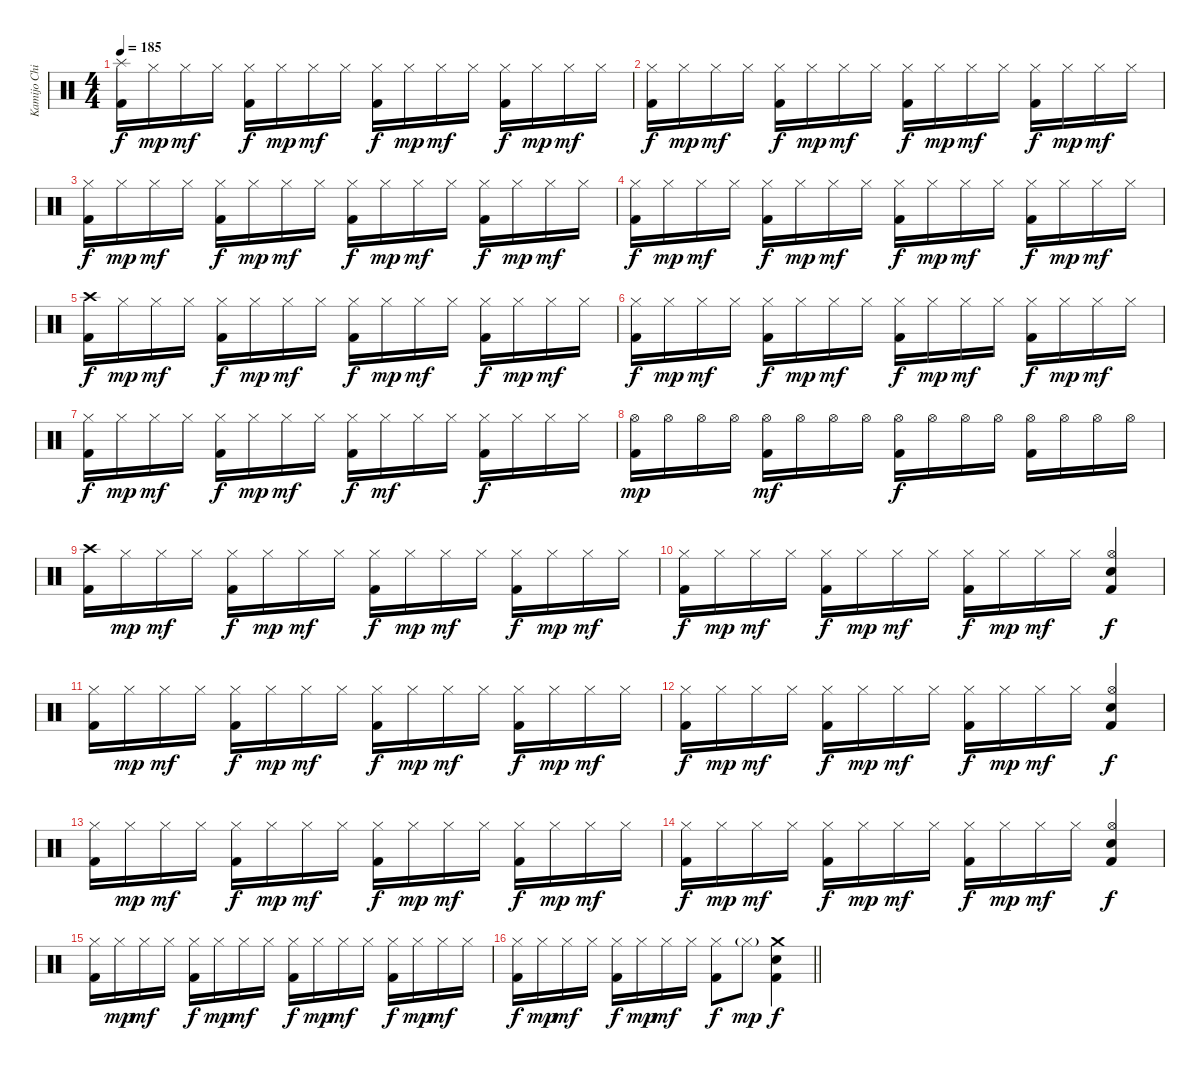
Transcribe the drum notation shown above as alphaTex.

\track ("Kamijo Chihiro" "Kamijo Chi") {instrument percussion}
\staff {score}
\articulation defaults
\ts (4 4)
\tempo 185
\clef neutral
\ks c
("Splash (hit)" "Kick (hit) 2").16{dy f} "Hi-Hat (closed)".16{dy mp} "Hi-Hat (closed)".16{dy mf} "Hi-Hat (closed)".16 ("Hi-Hat (closed)" "Kick (hit) 2").16{dy f} "Hi-Hat (closed)".16{dy mp} "Hi-Hat (closed)".16{dy mf} "Hi-Hat (closed)".16 ("Hi-Hat (closed)" "Kick (hit) 2").16{dy f} "Hi-Hat (closed)".16{dy mp} "Hi-Hat (closed)".16{dy mf} "Hi-Hat (closed)".16 ("Hi-Hat (closed)" "Kick (hit) 2").16{dy f} "Hi-Hat (closed)".16{dy mp} "Hi-Hat (closed)".16{dy mf} "Hi-Hat (closed)".16 |
("Hi-Hat (closed)" "Kick (hit) 2").16{dy f} "Hi-Hat (closed)".16{dy mp} "Hi-Hat (closed)".16{dy mf} "Hi-Hat (closed)".16 ("Hi-Hat (closed)" "Kick (hit) 2").16{dy f} "Hi-Hat (closed)".16{dy mp} "Hi-Hat (closed)".16{dy mf} "Hi-Hat (closed)".16 ("Hi-Hat (closed)" "Kick (hit) 2").16{dy f} "Hi-Hat (closed)".16{dy mp} "Hi-Hat (closed)".16{dy mf} "Hi-Hat (closed)".16 ("Hi-Hat (closed)" "Kick (hit) 2").16{dy f} "Hi-Hat (closed)".16{dy mp} "Hi-Hat (closed)".16{dy mf} "Hi-Hat (closed)".16 |
("Hi-Hat (closed)" "Kick (hit) 2").16{dy f} "Hi-Hat (closed)".16{dy mp} "Hi-Hat (closed)".16{dy mf} "Hi-Hat (closed)".16 ("Hi-Hat (closed)" "Kick (hit) 2").16{dy f} "Hi-Hat (closed)".16{dy mp} "Hi-Hat (closed)".16{dy mf} "Hi-Hat (closed)".16 ("Hi-Hat (closed)" "Kick (hit) 2").16{dy f} "Hi-Hat (closed)".16{dy mp} "Hi-Hat (closed)".16{dy mf} "Hi-Hat (closed)".16 ("Hi-Hat (closed)" "Kick (hit) 2").16{dy f} "Hi-Hat (closed)".16{dy mp} "Hi-Hat (closed)".16{dy mf} "Hi-Hat (closed)".16 |
("Hi-Hat (closed)" "Kick (hit) 2").16{dy f} "Hi-Hat (closed)".16{dy mp} "Hi-Hat (closed)".16{dy mf} "Hi-Hat (closed)".16 ("Hi-Hat (closed)" "Kick (hit) 2").16{dy f} "Hi-Hat (closed)".16{dy mp} "Hi-Hat (closed)".16{dy mf} "Hi-Hat (closed)".16 ("Hi-Hat (closed)" "Kick (hit) 2").16{dy f} "Hi-Hat (closed)".16{dy mp} "Hi-Hat (closed)".16{dy mf} "Hi-Hat (closed)".16 ("Hi-Hat (closed)" "Kick (hit) 2").16{dy f} "Hi-Hat (closed)".16{dy mp} "Hi-Hat (closed)".16{dy mf} "Hi-Hat (closed)".16 |
("Crash high (hit)" "Kick (hit) 2").16{dy f} "Hi-Hat (closed)".16{dy mp} "Hi-Hat (closed)".16{dy mf} "Hi-Hat (closed)".16 ("Hi-Hat (closed)" "Kick (hit) 2").16{dy f} "Hi-Hat (closed)".16{dy mp} "Hi-Hat (closed)".16{dy mf} "Hi-Hat (closed)".16 ("Hi-Hat (closed)" "Kick (hit) 2").16{dy f} "Hi-Hat (closed)".16{dy mp} "Hi-Hat (closed)".16{dy mf} "Hi-Hat (closed)".16 ("Hi-Hat (closed)" "Kick (hit) 2").16{dy f} "Hi-Hat (closed)".16{dy mp} "Hi-Hat (closed)".16{dy mf} "Hi-Hat (closed)".16 |
("Hi-Hat (closed)" "Kick (hit) 2").16{dy f} "Hi-Hat (closed)".16{dy mp} "Hi-Hat (closed)".16{dy mf} "Hi-Hat (closed)".16 ("Hi-Hat (closed)" "Kick (hit) 2").16{dy f} "Hi-Hat (closed)".16{dy mp} "Hi-Hat (closed)".16{dy mf} "Hi-Hat (closed)".16 ("Hi-Hat (closed)" "Kick (hit) 2").16{dy f} "Hi-Hat (closed)".16{dy mp} "Hi-Hat (closed)".16{dy mf} "Hi-Hat (closed)".16 ("Hi-Hat (closed)" "Kick (hit) 2").16{dy f} "Hi-Hat (closed)".16{dy mp} "Hi-Hat (closed)".16{dy mf} "Hi-Hat (closed)".16 |
("Hi-Hat (closed)" "Kick (hit) 2").16{dy f} "Hi-Hat (closed)".16{dy mp} "Hi-Hat (closed)".16{dy mf} "Hi-Hat (closed)".16 ("Hi-Hat (closed)" "Kick (hit) 2").16{dy f} "Hi-Hat (closed)".16{dy mp} "Hi-Hat (closed)".16{dy mf} "Hi-Hat (closed)".16 ("Hi-Hat (closed)" "Kick (hit) 2").16{dy f} "Hi-Hat (closed)".16{dy mf} "Hi-Hat (closed)".16 "Hi-Hat (closed)".16 ("Hi-Hat (closed)" "Kick (hit) 2").16{dy f} "Hi-Hat (closed)".16 "Hi-Hat (closed)".16 "Hi-Hat (closed)".16 |
("Hi-Hat (open)" "Kick (hit) 2").16{dy mp} "Hi-Hat (open)".16 "Hi-Hat (open)".16 "Hi-Hat (open)".16 ("Hi-Hat (open)" "Kick (hit) 2").16{dy mf} "Hi-Hat (open)".16 "Hi-Hat (open)".16 "Hi-Hat (open)".16 ("Hi-Hat (open)" "Kick (hit) 2").16{dy f} "Hi-Hat (open)".16 "Hi-Hat (open)".16 "Hi-Hat (open)".16 ("Hi-Hat (open)" "Kick (hit) 2").16 "Hi-Hat (open)".16 "Hi-Hat (open)".16 "Hi-Hat (open)".16 |
("Crash high (hit)" "Kick (hit) 2").16 "Hi-Hat (closed)".16{dy mp} "Hi-Hat (closed)".16{dy mf} "Hi-Hat (closed)".16 ("Hi-Hat (closed)" "Kick (hit) 2").16{dy f} "Hi-Hat (closed)".16{dy mp} "Hi-Hat (closed)".16{dy mf} "Hi-Hat (closed)".16 ("Hi-Hat (closed)" "Kick (hit) 2").16{dy f} "Hi-Hat (closed)".16{dy mp} "Hi-Hat (closed)".16{dy mf} "Hi-Hat (closed)".16 ("Hi-Hat (closed)" "Kick (hit) 2").16{dy f} "Hi-Hat (closed)".16{dy mp} "Hi-Hat (closed)".16{dy mf} "Hi-Hat (closed)".16 |
("Hi-Hat (closed)" "Kick (hit) 2").16{dy f} "Hi-Hat (closed)".16{dy mp} "Hi-Hat (closed)".16{dy mf} "Hi-Hat (closed)".16 ("Hi-Hat (closed)" "Kick (hit) 2").16{dy f} "Hi-Hat (closed)".16{dy mp} "Hi-Hat (closed)".16{dy mf} "Hi-Hat (closed)".16 ("Hi-Hat (closed)" "Kick (hit) 2").16{dy f} "Hi-Hat (closed)".16{dy mp} "Hi-Hat (closed)".16{dy mf} "Hi-Hat (closed)".16 ("Hi-Hat (open)" "Snare (hit) 2" "Kick (hit) 2").4{dy f} |
("Hi-Hat (closed)" "Kick (hit) 2").16 "Hi-Hat (closed)".16{dy mp} "Hi-Hat (closed)".16{dy mf} "Hi-Hat (closed)".16 ("Hi-Hat (closed)" "Kick (hit) 2").16{dy f} "Hi-Hat (closed)".16{dy mp} "Hi-Hat (closed)".16{dy mf} "Hi-Hat (closed)".16 ("Hi-Hat (closed)" "Kick (hit) 2").16{dy f} "Hi-Hat (closed)".16{dy mp} "Hi-Hat (closed)".16{dy mf} "Hi-Hat (closed)".16 ("Hi-Hat (closed)" "Kick (hit) 2").16{dy f} "Hi-Hat (closed)".16{dy mp} "Hi-Hat (closed)".16{dy mf} "Hi-Hat (closed)".16 |
("Hi-Hat (closed)" "Kick (hit) 2").16{dy f} "Hi-Hat (closed)".16{dy mp} "Hi-Hat (closed)".16{dy mf} "Hi-Hat (closed)".16 ("Hi-Hat (closed)" "Kick (hit) 2").16{dy f} "Hi-Hat (closed)".16{dy mp} "Hi-Hat (closed)".16{dy mf} "Hi-Hat (closed)".16 ("Hi-Hat (closed)" "Kick (hit) 2").16{dy f} "Hi-Hat (closed)".16{dy mp} "Hi-Hat (closed)".16{dy mf} "Hi-Hat (closed)".16 ("Hi-Hat (open)" "Snare (hit) 2" "Kick (hit) 2").4{dy f} |
("Hi-Hat (closed)" "Kick (hit) 2").16 "Hi-Hat (closed)".16{dy mp} "Hi-Hat (closed)".16{dy mf} "Hi-Hat (closed)".16 ("Hi-Hat (closed)" "Kick (hit) 2").16{dy f} "Hi-Hat (closed)".16{dy mp} "Hi-Hat (closed)".16{dy mf} "Hi-Hat (closed)".16 ("Hi-Hat (closed)" "Kick (hit) 2").16{dy f} "Hi-Hat (closed)".16{dy mp} "Hi-Hat (closed)".16{dy mf} "Hi-Hat (closed)".16 ("Hi-Hat (closed)" "Kick (hit) 2").16{dy f} "Hi-Hat (closed)".16{dy mp} "Hi-Hat (closed)".16{dy mf} "Hi-Hat (closed)".16 |
("Hi-Hat (closed)" "Kick (hit) 2").16{dy f} "Hi-Hat (closed)".16{dy mp} "Hi-Hat (closed)".16{dy mf} "Hi-Hat (closed)".16 ("Hi-Hat (closed)" "Kick (hit) 2").16{dy f} "Hi-Hat (closed)".16{dy mp} "Hi-Hat (closed)".16{dy mf} "Hi-Hat (closed)".16 ("Hi-Hat (closed)" "Kick (hit) 2").16{dy f} "Hi-Hat (closed)".16{dy mp} "Hi-Hat (closed)".16{dy mf} "Hi-Hat (closed)".16 ("Hi-Hat (open)" "Snare (hit) 2" "Kick (hit) 2").4{dy f} |
("Hi-Hat (closed)" "Kick (hit) 2").16 "Hi-Hat (closed)".16{dy mp} "Hi-Hat (closed)".16{dy mf} "Hi-Hat (closed)".16 ("Hi-Hat (closed)" "Kick (hit) 2").16{dy f} "Hi-Hat (closed)".16{dy mp} "Hi-Hat (closed)".16{dy mf} "Hi-Hat (closed)".16 ("Hi-Hat (closed)" "Kick (hit) 2").16{dy f} "Hi-Hat (closed)".16{dy mp} "Hi-Hat (closed)".16{dy mf} "Hi-Hat (closed)".16 ("Hi-Hat (closed)" "Kick (hit) 2").16{dy f} "Hi-Hat (closed)".16{dy mp} "Hi-Hat (closed)".16{dy mf} "Hi-Hat (closed)".16 |
\barLineRight lightlight
("Hi-Hat (closed)" "Kick (hit) 2").16{dy f} "Hi-Hat (closed)".16{dy mp} "Hi-Hat (closed)".16{dy mf} "Hi-Hat (closed)".16 ("Hi-Hat (closed)" "Kick (hit) 2").16{dy f} "Hi-Hat (closed)".16{dy mp} "Hi-Hat (closed)".16{dy mf} "Hi-Hat (closed)".16 ("Hi-Hat (closed)" "Kick (hit) 2").8{dy f} "Hi-Hat (closed)"{g}.8{dy mp} ("Crash medium (hit)" "Snare (hit) 2" "Kick (hit) 2").4{dy f}
